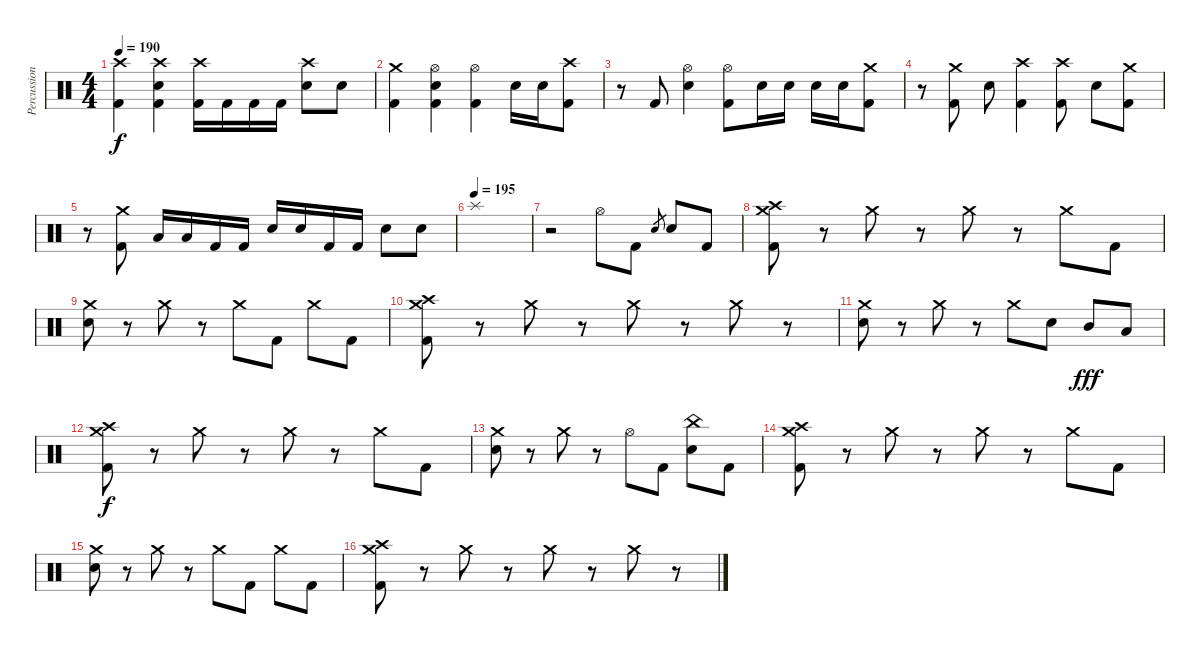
\track ("Percussion" "Percussion") {instrument percussion}
\staff {score}
\articulation defaults
\ts (4 4)
\tempo 190
\clef neutral
\ks c
("Crash high (hit)" "Kick (hit) 2").4{dy f} ("Crash high (hit)" "Electric Snare (hit)" "Kick (hit) 2").4 ("Crash high (hit)" "Kick (hit) 2").16 "Kick (hit) 2".16 "Kick (hit) 2".16 "Kick (hit) 2".16 ("Crash high (hit)" "Electric Snare (hit)").8 "Electric Snare (hit)".8 |
("Crash medium (hit)" "Kick (hit) 2").4 ("Hi-Hat (open)" "Electric Snare (hit)" "Kick (hit) 2").4 ("Hi-Hat (open)" "Kick (hit) 2").4 "Electric Snare (hit)".16 "Electric Snare (hit)".16 ("Crash high (hit)" "Kick (hit) 2").8 |
r.8 "Kick (hit) 2".8 ("Hi-Hat (open)" "Electric Snare (hit)").4 ("Hi-Hat (open)" "Kick (hit) 2").8 "Electric Snare (hit)".16 "Electric Snare (hit)".16 "Electric Snare (hit)".16 "Electric Snare (hit)".16 ("Crash medium (hit)" "Kick (hit) 2").8 |
r.8 ("Crash medium (hit)" "Kick (hit) 2").8 "Electric Snare (hit)".8 ("Crash high (hit)" "Kick (hit) 2").4 ("Crash high (hit)" "Kick (hit) 2").8 "Electric Snare (hit)".8 ("Crash medium (hit)" "Kick (hit) 2").8 |
r.8 ("Crash medium (hit)" "Kick (hit) 2").8 "Low Tom (hit)".16 "Low Tom (hit)".16 "Kick (hit) 2".16 "Kick (hit) 2".16 "Electric Snare (hit)".16 "Electric Snare (hit)".16 "Kick (hit) 2".16 "Kick (hit) 2".16 "Electric Snare (hit)".8 "Electric Snare (hit)".8 |
\tempo (195)
"Splash (hit)".1 |
r.2 "Hi-Hat (open)".8 "Kick (hit) 2".8 "Electric Snare (hit)".8{gr} "Electric Snare (hit)".8 "Kick (hit) 2".8 |
("Crash medium (hit)" "Crash high (hit)" "Kick (hit) 2").8 r.8 "Crash medium (hit)".8 r.8 "Crash medium (hit)".8 r.8 "Crash medium (hit)".8 "Kick (hit) 2".8 |
("Crash medium (hit)" "Electric Snare (hit)").8 r.8 "Crash medium (hit)".8 r.8 "Crash medium (hit)".8 "Kick (hit) 2".8 "Crash medium (hit)".8 "Kick (hit) 2".8 |
("Crash medium (hit)" "Crash high (hit)" "Kick (hit) 2").8 r.8 "Crash medium (hit)".8 r.8 "Crash medium (hit)".8 r.8 "Crash medium (hit)".8 r.8 |
("Crash medium (hit)" "Electric Snare (hit)").8 r.8 "Crash medium (hit)".8 r.8 "Crash medium (hit)".8 "Electric Snare (hit)".8 "Mid Tom (hit)".8{dy fff} "Low Tom (hit)".8 |
("Crash medium (hit)" "Crash high (hit)" "Kick (hit) 2").8{dy f} r.8 "Crash medium (hit)".8 r.8 "Crash medium (hit)".8 r.8 "Crash medium (hit)".8 "Kick (hit) 2".8 |
("Crash medium (hit)" "Electric Snare (hit)").8 r.8 "Crash medium (hit)".8 r.8 "Hi-Hat (open)".8 "Kick (hit) 2".8 ("China (hit)" "Electric Snare (hit)").8 "Kick (hit) 2".8 |
("Crash medium (hit)" "Crash high (hit)" "Kick (hit) 2").8 r.8 "Crash medium (hit)".8 r.8 "Crash medium (hit)".8 r.8 "Crash medium (hit)".8 "Kick (hit) 2".8 |
("Crash medium (hit)" "Electric Snare (hit)").8 r.8 "Crash medium (hit)".8 r.8 "Crash medium (hit)".8 "Kick (hit) 2".8 "Crash medium (hit)".8 "Kick (hit) 2".8 |
("Crash medium (hit)" "Crash high (hit)" "Kick (hit) 2").8 r.8 "Crash medium (hit)".8 r.8 "Crash medium (hit)".8 r.8 "Crash medium (hit)".8 r.8
